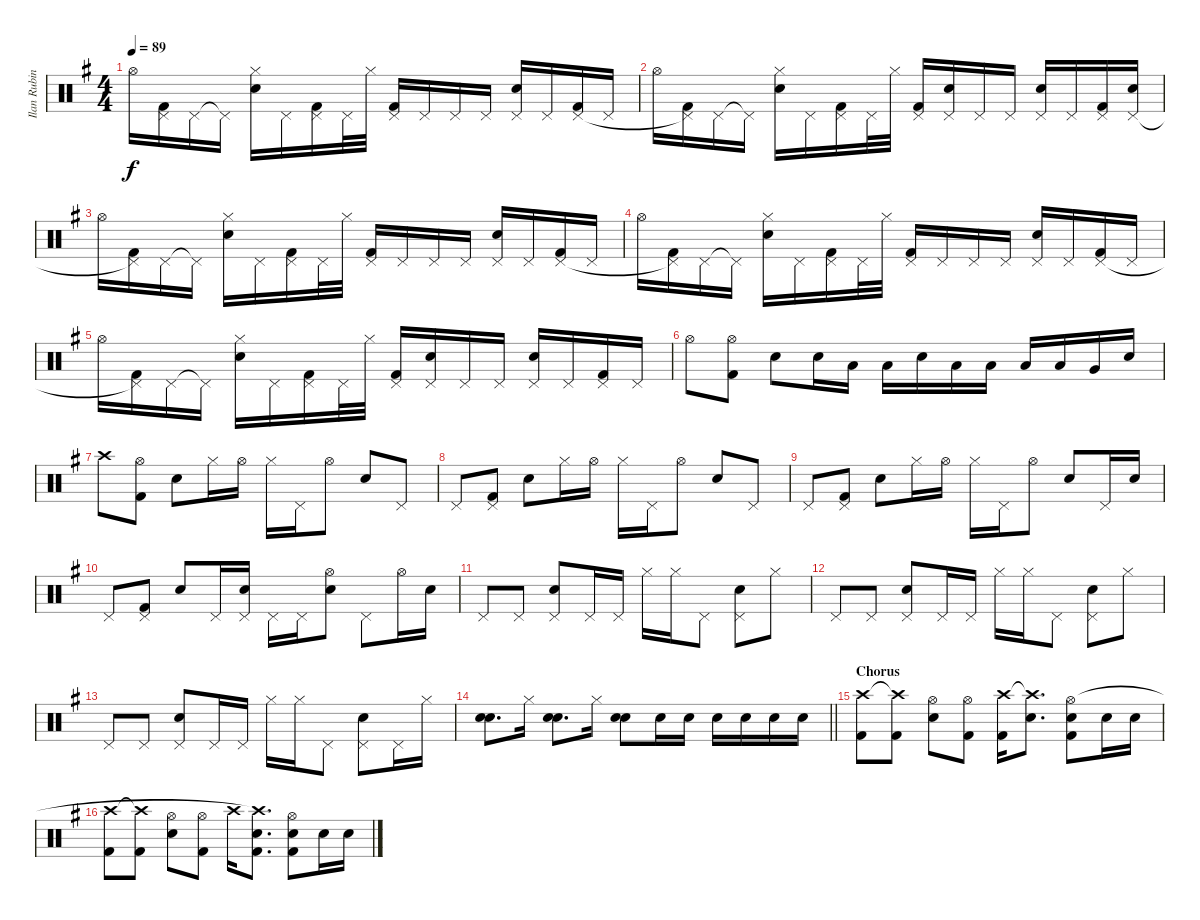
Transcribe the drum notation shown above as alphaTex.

\track ("Ilan Rubin (Batería)" "Ilan Rubin") {instrument percussion}
\staff {score}
\articulation defaults
\ts (4 4)
\tempo 89
\clef neutral
\ks g "Hi-Hat (open)".16{dy f}
("Kick (hit) 2" "Pedal Hi-Hat (hit)"{t}).16 "Pedal Hi-Hat (hit)".16 "Pedal Hi-Hat (hit)"{t}.16 ("Electric Snare (hit)" "Hi-Hat (closed)").16 "Pedal Hi-Hat (hit)".16 ("Kick (hit) 2" "Pedal Hi-Hat (hit)").16 "Pedal Hi-Hat (hit)".32 "Hi-Hat (closed)".32 ("Kick (hit) 2" "Pedal Hi-Hat (hit)").16 "Pedal Hi-Hat (hit)".16 "Pedal Hi-Hat (hit)".16 "Pedal Hi-Hat (hit)".16 ("Electric Snare (hit)" "Pedal Hi-Hat (hit)").16 "Pedal Hi-Hat (hit)".16 ("Kick (hit) 2" "Pedal Hi-Hat (hit)").16 "Pedal Hi-Hat (hit)".16 |
"Hi-Hat (open)".16 ("Kick (hit) 2" "Pedal Hi-Hat (hit)"{t}).16 "Pedal Hi-Hat (hit)".16 "Pedal Hi-Hat (hit)"{t}.16 ("Electric Snare (hit)" "Hi-Hat (closed)").16 "Pedal Hi-Hat (hit)".16 ("Kick (hit) 2" "Pedal Hi-Hat (hit)").16 "Pedal Hi-Hat (hit)".32 "Hi-Hat (closed)".32 ("Kick (hit) 2" "Pedal Hi-Hat (hit)").16 ("Electric Snare (hit)" "Pedal Hi-Hat (hit)").16 "Pedal Hi-Hat (hit)".16 "Pedal Hi-Hat (hit)".16 ("Electric Snare (hit)" "Pedal Hi-Hat (hit)").16 "Pedal Hi-Hat (hit)".16 ("Kick (hit) 2" "Pedal Hi-Hat (hit)").16 ("Electric Snare (hit)" "Pedal Hi-Hat (hit)").16 |
"Hi-Hat (open)".16 ("Kick (hit) 2" "Pedal Hi-Hat (hit)"{t}).16 "Pedal Hi-Hat (hit)".16 "Pedal Hi-Hat (hit)"{t}.16 ("Electric Snare (hit)" "Hi-Hat (closed)").16 "Pedal Hi-Hat (hit)".16 ("Kick (hit) 2" "Pedal Hi-Hat (hit)").16 "Pedal Hi-Hat (hit)".32 "Hi-Hat (closed)".32 ("Kick (hit) 2" "Pedal Hi-Hat (hit)").16 "Pedal Hi-Hat (hit)".16 "Pedal Hi-Hat (hit)".16 "Pedal Hi-Hat (hit)".16 ("Electric Snare (hit)" "Pedal Hi-Hat (hit)").16 "Pedal Hi-Hat (hit)".16 ("Kick (hit) 2" "Pedal Hi-Hat (hit)").16 "Pedal Hi-Hat (hit)".16 |
"Hi-Hat (open)".16 ("Kick (hit) 2" "Pedal Hi-Hat (hit)"{t}).16 "Pedal Hi-Hat (hit)".16 "Pedal Hi-Hat (hit)"{t}.16 ("Electric Snare (hit)" "Hi-Hat (closed)").16 "Pedal Hi-Hat (hit)".16 ("Kick (hit) 2" "Pedal Hi-Hat (hit)").16 "Pedal Hi-Hat (hit)".32 "Hi-Hat (closed)".32 ("Kick (hit) 2" "Pedal Hi-Hat (hit)").16 "Pedal Hi-Hat (hit)".16 "Pedal Hi-Hat (hit)".16 "Pedal Hi-Hat (hit)".16 ("Electric Snare (hit)" "Pedal Hi-Hat (hit)").16 "Pedal Hi-Hat (hit)".16 ("Kick (hit) 2" "Pedal Hi-Hat (hit)").16 "Pedal Hi-Hat (hit)".16 |
"Hi-Hat (open)".16 ("Kick (hit) 2" "Pedal Hi-Hat (hit)"{t}).16 "Pedal Hi-Hat (hit)".16 "Pedal Hi-Hat (hit)"{t}.16 ("Electric Snare (hit)" "Hi-Hat (closed)").16 "Pedal Hi-Hat (hit)".16 ("Kick (hit) 2" "Pedal Hi-Hat (hit)").16 "Pedal Hi-Hat (hit)".32 "Hi-Hat (closed)".32 ("Kick (hit) 2" "Pedal Hi-Hat (hit)").16 ("Electric Snare (hit)" "Pedal Hi-Hat (hit)").16 "Pedal Hi-Hat (hit)".16 "Pedal Hi-Hat (hit)".16 ("Electric Snare (hit)" "Pedal Hi-Hat (hit)").16 "Pedal Hi-Hat (hit)".16 ("Kick (hit) 2" "Pedal Hi-Hat (hit)").16 "Pedal Hi-Hat (hit)".16 |
"Hi-Hat (open)".8 ("Kick (hit) 2" "Hi-Hat (open)").8 "Electric Snare (hit)".8 "Electric Snare (hit)".16 "Low Tom (hit)".16 "Low Tom (hit)".16 "Electric Snare (hit)".16 "Low Tom (hit)".16 "Low Tom (hit)".16 "Low Floor Tom (hit)".16 "Low Floor Tom (hit)".16 "Very Low Tom (hit)".16 "Electric Snare (hit)".16 |
"Crash high (hit)".8 ("Kick (hit) 2" "Hi-Hat (open)").8 "Electric Snare (hit)".8 "Hi-Hat (closed)".16 "Hi-Hat (open)".16 "Hi-Hat (closed)".16 "Pedal Hi-Hat (hit)".16 "Hi-Hat (open)".8 "Electric Snare (hit)".8 "Pedal Hi-Hat (hit)".8 |
"Pedal Hi-Hat (hit)".8 ("Kick (hit) 2" "Pedal Hi-Hat (hit)").8 "Electric Snare (hit)".8 "Hi-Hat (closed)".16 "Hi-Hat (open)".16 "Hi-Hat (closed)".16 "Pedal Hi-Hat (hit)".16 "Hi-Hat (open)".8 "Electric Snare (hit)".8 "Pedal Hi-Hat (hit)".8 |
"Pedal Hi-Hat (hit)".8 ("Kick (hit) 2" "Pedal Hi-Hat (hit)").8 "Electric Snare (hit)".8 "Hi-Hat (closed)".16 "Hi-Hat (open)".16 "Hi-Hat (closed)".16 "Pedal Hi-Hat (hit)".16 "Hi-Hat (open)".8 "Electric Snare (hit)".8 "Pedal Hi-Hat (hit)".16 "Electric Snare (hit)".16 |
"Pedal Hi-Hat (hit)".8 ("Kick (hit) 2" "Pedal Hi-Hat (hit)").8 "Electric Snare (hit)".8 "Pedal Hi-Hat (hit)".16 ("Electric Snare (hit)" "Pedal Hi-Hat (hit)").16 "Pedal Hi-Hat (hit)".16 "Pedal Hi-Hat (hit)".16 ("Electric Snare (hit)" "Hi-Hat (open)").8 "Pedal Hi-Hat (hit)".8 "Hi-Hat (open)".16 "Electric Snare (hit)".16 |
"Pedal Hi-Hat (hit)".8 "Pedal Hi-Hat (hit)".8 ("Electric Snare (hit)" "Pedal Hi-Hat (hit)").8 "Pedal Hi-Hat (hit)".16 "Pedal Hi-Hat (hit)".16 "Hi-Hat (closed)".16 "Hi-Hat (closed)".16 "Pedal Hi-Hat (hit)".8 ("Electric Snare (hit)" "Pedal Hi-Hat (hit)").8 "Hi-Hat (closed)".8 |
"Pedal Hi-Hat (hit)".8 "Pedal Hi-Hat (hit)".8 ("Electric Snare (hit)" "Pedal Hi-Hat (hit)").8 "Pedal Hi-Hat (hit)".16 "Pedal Hi-Hat (hit)".16 "Hi-Hat (closed)".16 "Hi-Hat (closed)".16 "Pedal Hi-Hat (hit)".8 ("Electric Snare (hit)" "Pedal Hi-Hat (hit)").8 "Hi-Hat (closed)".8 |
"Pedal Hi-Hat (hit)".8 "Pedal Hi-Hat (hit)".8 ("Electric Snare (hit)" "Pedal Hi-Hat (hit)").8 "Pedal Hi-Hat (hit)".16 "Pedal Hi-Hat (hit)".16 "Hi-Hat (closed)".16 "Hi-Hat (closed)".16 "Pedal Hi-Hat (hit)".8 ("Electric Snare (hit)" "Pedal Hi-Hat (hit)").8 "Pedal Hi-Hat (hit)".16 "Hi-Hat (closed)".16 |
\barLineRight lightlight
("Snare (hit) 2" "Electric Snare (hit)").8{d} "Hi-Hat (closed)".16 ("Snare (hit) 2" "Electric Snare (hit)").8{d} "Hi-Hat (closed)".16 ("Snare (hit) 2" "Electric Snare (hit)").8 "Electric Snare (hit)".16 "Electric Snare (hit)".16 "Electric Snare (hit)".16 "Electric Snare (hit)".16 "Electric Snare (hit)".16 "Electric Snare (hit)".16 |
\section ("" "Chorus")
("Kick (hit) 2" "Crash high (hit)").8 ("Kick (hit) 2" "Crash high (hit)"{t}).8 ("Electric Snare (hit)" "Hi-Hat (open)").8 ("Kick (hit) 2" "Hi-Hat (open)").8 ("Kick (hit) 2" "Crash high (hit)").16 ("Electric Snare (hit)" "Crash high (hit)"{t}).8{d} ("Kick (hit) 2" "Electric Snare (hit)" "Hi-Hat (open)").8 "Electric Snare (hit)".16 "Electric Snare (hit)".16 |
("Kick (hit) 2" "Crash high (hit)").8 ("Kick (hit) 2" "Crash high (hit)"{t}).8 ("Electric Snare (hit)" "Hi-Hat (open)").8 ("Kick (hit) 2" "Hi-Hat (open)").8 "Crash high (hit)".16 ("Kick (hit) 2" "Electric Snare (hit)" "Crash high (hit)"{t}).8{d} ("Kick (hit) 2" "Electric Snare (hit)" "Hi-Hat (open)").8 "Electric Snare (hit)".16 "Electric Snare (hit)".16
